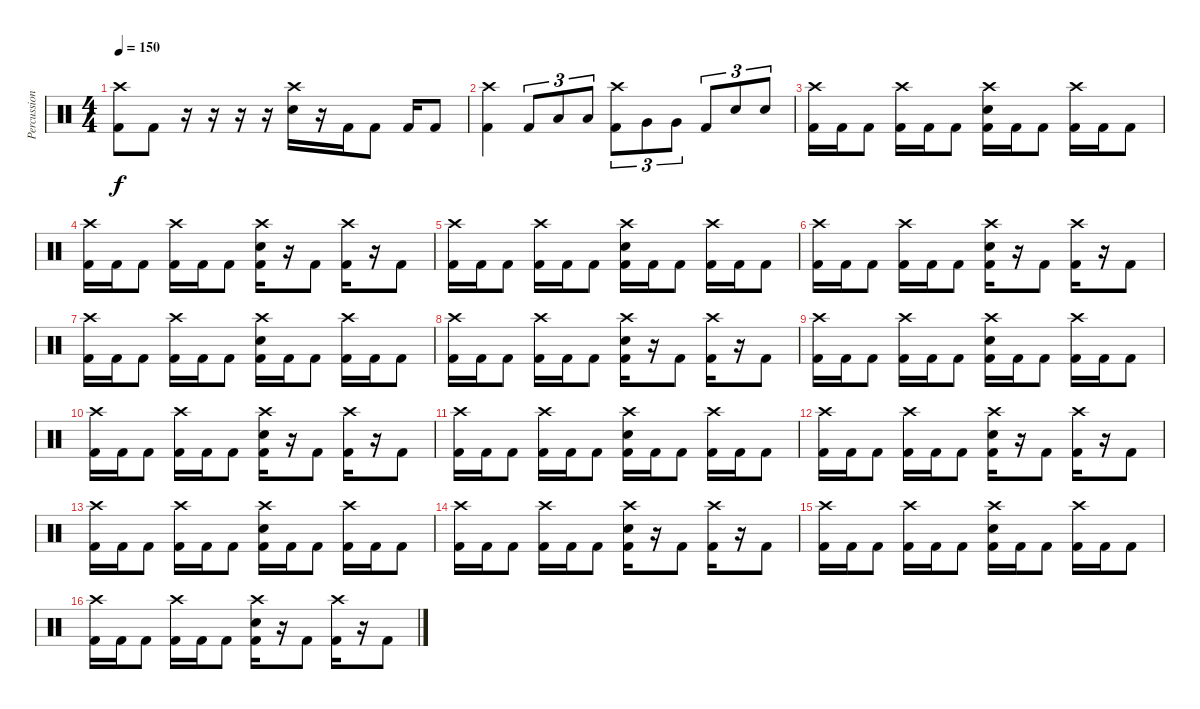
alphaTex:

\track ("Percussion" "Percussion") {instrument percussion}
\staff {score}
\articulation defaults
\ts (4 4)
\tempo 150
\clef neutral
\ks c
("Crash high (hit)" "Kick (hit) 2").8{dy f} "Kick (hit) 2".8 r.16 r.16 r.16 r.16 ("Crash high (hit)" "Electric Snare (hit)").16 r.16 "Kick (hit) 2".16 "Kick (hit) 2".8 "Kick (hit) 2".16 "Kick (hit) 2".8 |
("Crash high (hit)" "Kick (hit) 2").4 "Kick (hit) 2".8{tu (3 2)} "Low Tom (hit)".8{tu (3 2)} "Low Tom (hit)".8{tu (3 2)} ("Crash high (hit)" "Kick (hit) 2").8{tu (3 2)} "Very Low Tom (hit)".8{tu (3 2)} "Very Low Tom (hit)".8{tu (3 2)} "Kick (hit) 2".8{tu (3 2)} "Electric Snare (hit)".8{tu (3 2)} "Electric Snare (hit)".8{tu (3 2)} |
("Crash high (hit)" "Kick (hit) 2").16 "Kick (hit) 2".16 "Kick (hit) 2".8 ("Crash high (hit)" "Kick (hit) 2").16 "Kick (hit) 2".16 "Kick (hit) 2".8 ("Crash high (hit)" "Electric Snare (hit)" "Kick (hit) 2").16 "Kick (hit) 2".16 "Kick (hit) 2".8 ("Crash high (hit)" "Kick (hit) 2").16 "Kick (hit) 2".16 "Kick (hit) 2".8 |
("Crash high (hit)" "Kick (hit) 2").16 "Kick (hit) 2".16 "Kick (hit) 2".8 ("Crash high (hit)" "Kick (hit) 2").16 "Kick (hit) 2".16 "Kick (hit) 2".8 ("Crash high (hit)" "Electric Snare (hit)" "Kick (hit) 2").16 r.16 "Kick (hit) 2".8 ("Crash high (hit)" "Kick (hit) 2").16 r.16 "Kick (hit) 2".8 |
("Crash high (hit)" "Kick (hit) 2").16 "Kick (hit) 2".16 "Kick (hit) 2".8 ("Crash high (hit)" "Kick (hit) 2").16 "Kick (hit) 2".16 "Kick (hit) 2".8 ("Crash high (hit)" "Electric Snare (hit)" "Kick (hit) 2").16 "Kick (hit) 2".16 "Kick (hit) 2".8 ("Crash high (hit)" "Kick (hit) 2").16 "Kick (hit) 2".16 "Kick (hit) 2".8 |
("Crash high (hit)" "Kick (hit) 2").16 "Kick (hit) 2".16 "Kick (hit) 2".8 ("Crash high (hit)" "Kick (hit) 2").16 "Kick (hit) 2".16 "Kick (hit) 2".8 ("Crash high (hit)" "Electric Snare (hit)" "Kick (hit) 2").16 r.16 "Kick (hit) 2".8 ("Crash high (hit)" "Kick (hit) 2").16 r.16 "Kick (hit) 2".8 |
("Crash high (hit)" "Kick (hit) 2").16 "Kick (hit) 2".16 "Kick (hit) 2".8 ("Crash high (hit)" "Kick (hit) 2").16 "Kick (hit) 2".16 "Kick (hit) 2".8 ("Crash high (hit)" "Electric Snare (hit)" "Kick (hit) 2").16 "Kick (hit) 2".16 "Kick (hit) 2".8 ("Crash high (hit)" "Kick (hit) 2").16 "Kick (hit) 2".16 "Kick (hit) 2".8 |
("Crash high (hit)" "Kick (hit) 2").16 "Kick (hit) 2".16 "Kick (hit) 2".8 ("Crash high (hit)" "Kick (hit) 2").16 "Kick (hit) 2".16 "Kick (hit) 2".8 ("Crash high (hit)" "Electric Snare (hit)" "Kick (hit) 2").16 r.16 "Kick (hit) 2".8 ("Crash high (hit)" "Kick (hit) 2").16 r.16 "Kick (hit) 2".8 |
("Crash high (hit)" "Kick (hit) 2").16 "Kick (hit) 2".16 "Kick (hit) 2".8 ("Crash high (hit)" "Kick (hit) 2").16 "Kick (hit) 2".16 "Kick (hit) 2".8 ("Crash high (hit)" "Electric Snare (hit)" "Kick (hit) 2").16 "Kick (hit) 2".16 "Kick (hit) 2".8 ("Crash high (hit)" "Kick (hit) 2").16 "Kick (hit) 2".16 "Kick (hit) 2".8 |
("Crash high (hit)" "Kick (hit) 2").16 "Kick (hit) 2".16 "Kick (hit) 2".8 ("Crash high (hit)" "Kick (hit) 2").16 "Kick (hit) 2".16 "Kick (hit) 2".8 ("Crash high (hit)" "Electric Snare (hit)" "Kick (hit) 2").16 r.16 "Kick (hit) 2".8 ("Crash high (hit)" "Kick (hit) 2").16 r.16 "Kick (hit) 2".8 |
("Crash high (hit)" "Kick (hit) 2").16 "Kick (hit) 2".16 "Kick (hit) 2".8 ("Crash high (hit)" "Kick (hit) 2").16 "Kick (hit) 2".16 "Kick (hit) 2".8 ("Crash high (hit)" "Electric Snare (hit)" "Kick (hit) 2").16 "Kick (hit) 2".16 "Kick (hit) 2".8 ("Crash high (hit)" "Kick (hit) 2").16 "Kick (hit) 2".16 "Kick (hit) 2".8 |
("Crash high (hit)" "Kick (hit) 2").16 "Kick (hit) 2".16 "Kick (hit) 2".8 ("Crash high (hit)" "Kick (hit) 2").16 "Kick (hit) 2".16 "Kick (hit) 2".8 ("Crash high (hit)" "Electric Snare (hit)" "Kick (hit) 2").16 r.16 "Kick (hit) 2".8 ("Crash high (hit)" "Kick (hit) 2").16 r.16 "Kick (hit) 2".8 |
("Crash high (hit)" "Kick (hit) 2").16 "Kick (hit) 2".16 "Kick (hit) 2".8 ("Crash high (hit)" "Kick (hit) 2").16 "Kick (hit) 2".16 "Kick (hit) 2".8 ("Crash high (hit)" "Electric Snare (hit)" "Kick (hit) 2").16 "Kick (hit) 2".16 "Kick (hit) 2".8 ("Crash high (hit)" "Kick (hit) 2").16 "Kick (hit) 2".16 "Kick (hit) 2".8 |
("Crash high (hit)" "Kick (hit) 2").16 "Kick (hit) 2".16 "Kick (hit) 2".8 ("Crash high (hit)" "Kick (hit) 2").16 "Kick (hit) 2".16 "Kick (hit) 2".8 ("Crash high (hit)" "Electric Snare (hit)" "Kick (hit) 2").16 r.16 "Kick (hit) 2".8 ("Crash high (hit)" "Kick (hit) 2").16 r.16 "Kick (hit) 2".8 |
("Crash high (hit)" "Kick (hit) 2").16 "Kick (hit) 2".16 "Kick (hit) 2".8 ("Crash high (hit)" "Kick (hit) 2").16 "Kick (hit) 2".16 "Kick (hit) 2".8 ("Crash high (hit)" "Electric Snare (hit)" "Kick (hit) 2").16 "Kick (hit) 2".16 "Kick (hit) 2".8 ("Crash high (hit)" "Kick (hit) 2").16 "Kick (hit) 2".16 "Kick (hit) 2".8 |
("Crash high (hit)" "Kick (hit) 2").16 "Kick (hit) 2".16 "Kick (hit) 2".8 ("Crash high (hit)" "Kick (hit) 2").16 "Kick (hit) 2".16 "Kick (hit) 2".8 ("Crash high (hit)" "Electric Snare (hit)" "Kick (hit) 2").16 r.16 "Kick (hit) 2".8 ("Crash high (hit)" "Kick (hit) 2").16 r.16 "Kick (hit) 2".8
